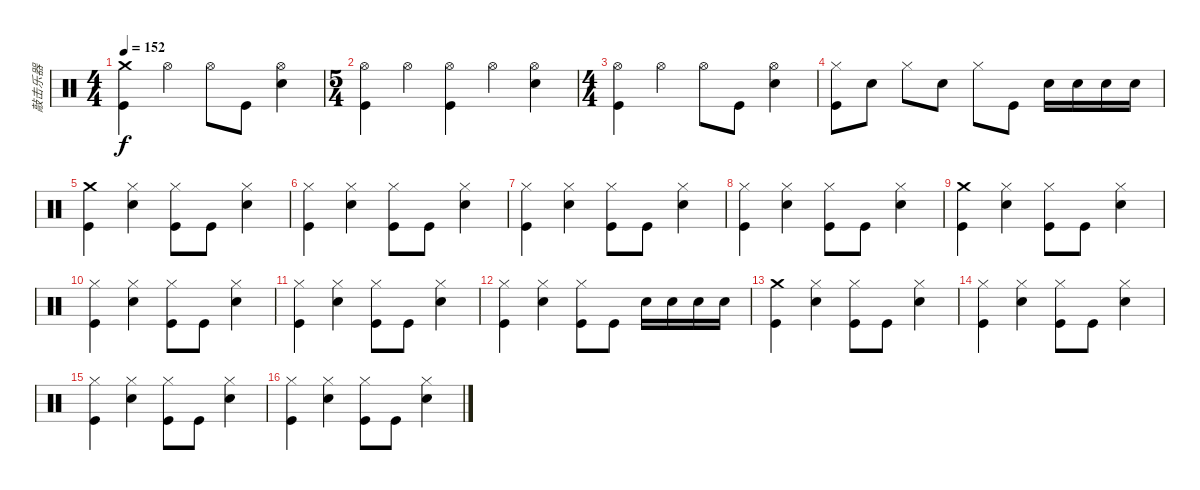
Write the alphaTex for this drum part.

\track ("敲击乐器" "敲击乐器") {instrument percussion}
\staff {score}
\articulation defaults
\ts (4 4)
\tempo 152
\clef neutral
\ks c
("Crash medium (hit)" "Kick (hit)").4{dy f} "Hi-Hat (open)".4 "Hi-Hat (open)".8 "Kick (hit)".8 ("Hi-Hat (open)" "Electric Snare (hit)").4 |
\ts (5 4)
("Hi-Hat (open)" "Kick (hit)").4 "Hi-Hat (open)".4 ("Hi-Hat (open)" "Kick (hit)").4 "Hi-Hat (open)".4 ("Hi-Hat (open)" "Electric Snare (hit)").4 |
\ts (4 4)
("Hi-Hat (open)" "Kick (hit)").4 "Hi-Hat (open)".4 "Hi-Hat (open)".8 "Kick (hit)".8 ("Hi-Hat (open)" "Electric Snare (hit)").4 |
("Hi-Hat (closed)" "Kick (hit)").8 "Electric Snare (hit)".8 "Hi-Hat (closed)".8 "Electric Snare (hit)".8 "Hi-Hat (closed)".8 "Kick (hit)".8 "Electric Snare (hit)".16 "Electric Snare (hit)".16 "Electric Snare (hit)".16 "Electric Snare (hit)".16 |
("Crash medium (hit)" "Kick (hit)").4 ("Hi-Hat (closed)" "Electric Snare (hit)").4 ("Hi-Hat (closed)" "Kick (hit)").8 "Kick (hit)".8 ("Hi-Hat (closed)" "Electric Snare (hit)").4 |
("Hi-Hat (closed)" "Kick (hit)").4 ("Hi-Hat (closed)" "Electric Snare (hit)").4 ("Hi-Hat (closed)" "Kick (hit)").8 "Kick (hit)".8 ("Hi-Hat (closed)" "Electric Snare (hit)").4 |
("Hi-Hat (closed)" "Kick (hit)").4 ("Hi-Hat (closed)" "Electric Snare (hit)").4 ("Hi-Hat (closed)" "Kick (hit)").8 "Kick (hit)".8 ("Hi-Hat (closed)" "Electric Snare (hit)").4 |
("Hi-Hat (closed)" "Kick (hit)").4 ("Hi-Hat (closed)" "Electric Snare (hit)").4 ("Hi-Hat (closed)" "Kick (hit)").8 "Kick (hit)".8 ("Hi-Hat (closed)" "Electric Snare (hit)").4 |
("Crash medium (hit)" "Kick (hit)").4 ("Hi-Hat (closed)" "Electric Snare (hit)").4 ("Hi-Hat (closed)" "Kick (hit)").8 "Kick (hit)".8 ("Hi-Hat (closed)" "Electric Snare (hit)").4 |
("Hi-Hat (closed)" "Kick (hit)").4 ("Hi-Hat (closed)" "Electric Snare (hit)").4 ("Hi-Hat (closed)" "Kick (hit)").8 "Kick (hit)".8 ("Hi-Hat (closed)" "Electric Snare (hit)").4 |
("Hi-Hat (closed)" "Kick (hit)").4 ("Hi-Hat (closed)" "Electric Snare (hit)").4 ("Hi-Hat (closed)" "Kick (hit)").8 "Kick (hit)".8 ("Hi-Hat (closed)" "Electric Snare (hit)").4 |
("Hi-Hat (closed)" "Kick (hit)").4 ("Hi-Hat (closed)" "Electric Snare (hit)").4 ("Hi-Hat (closed)" "Kick (hit)").8 "Kick (hit)".8 "Electric Snare (hit)".16 "Electric Snare (hit)".16 "Electric Snare (hit)".16 "Electric Snare (hit)".16 |
("Crash medium (hit)" "Kick (hit)").4 ("Hi-Hat (closed)" "Electric Snare (hit)").4 ("Hi-Hat (closed)" "Kick (hit)").8 "Kick (hit)".8 ("Hi-Hat (closed)" "Electric Snare (hit)").4 |
("Hi-Hat (closed)" "Kick (hit)").4 ("Hi-Hat (closed)" "Electric Snare (hit)").4 ("Hi-Hat (closed)" "Kick (hit)").8 "Kick (hit)".8 ("Hi-Hat (closed)" "Electric Snare (hit)").4 |
("Hi-Hat (closed)" "Kick (hit)").4 ("Hi-Hat (closed)" "Electric Snare (hit)").4 ("Hi-Hat (closed)" "Kick (hit)").8 "Kick (hit)".8 ("Hi-Hat (closed)" "Electric Snare (hit)").4 |
("Hi-Hat (closed)" "Kick (hit)").4 ("Hi-Hat (closed)" "Electric Snare (hit)").4 ("Hi-Hat (closed)" "Kick (hit)").8 "Kick (hit)".8 ("Hi-Hat (closed)" "Electric Snare (hit)").4
